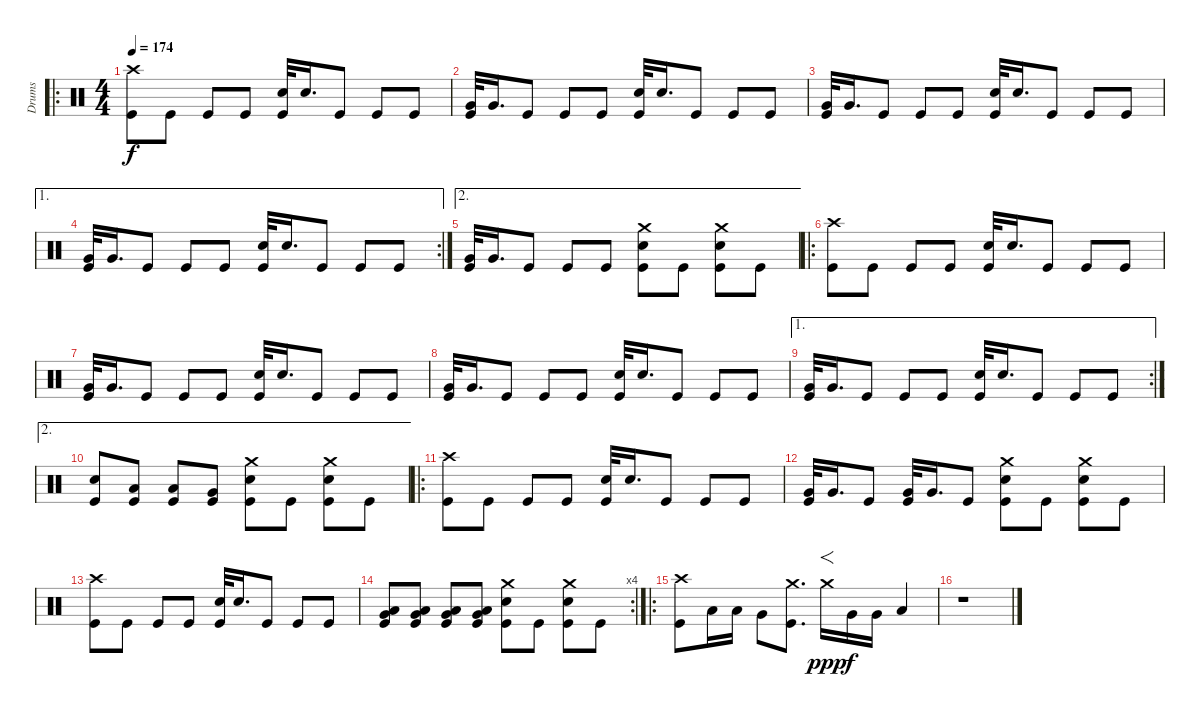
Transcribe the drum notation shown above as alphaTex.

\track ("Drums" "Drums") {instrument percussion}
\staff {score}
\articulation defaults
\ro
\ts (4 4)
\tempo 174
\tempo 164
\tempo 174
\clef neutral
\ks c
("Crash high (hit)" "Kick (hit)").8{dy f} "Kick (hit)".8 "Kick (hit)".8 "Kick (hit)".8 ("Electric Snare (hit)" "Kick (hit)").32 "Electric Snare (hit)".16{d} "Kick (hit)".8 "Kick (hit)".8 "Kick (hit)".8 |
("Very Low Tom (hit)" "Kick (hit)").32 "Very Low Tom (hit)".16{d} "Kick (hit)".8 "Kick (hit)".8 "Kick (hit)".8 ("Electric Snare (hit)" "Kick (hit)").32 "Electric Snare (hit)".16{d} "Kick (hit)".8 "Kick (hit)".8 "Kick (hit)".8 |
("Very Low Tom (hit)" "Kick (hit)").32 "Very Low Tom (hit)".16{d} "Kick (hit)".8 "Kick (hit)".8 "Kick (hit)".8 ("Electric Snare (hit)" "Kick (hit)").32 "Electric Snare (hit)".16{d} "Kick (hit)".8 "Kick (hit)".8 "Kick (hit)".8 |
\ae 1
\rc 2
("Very Low Tom (hit)" "Kick (hit)").32 "Very Low Tom (hit)".16{d} "Kick (hit)".8 "Kick (hit)".8 "Kick (hit)".8 ("Electric Snare (hit)" "Kick (hit)").32 "Electric Snare (hit)".16{d} "Kick (hit)".8 "Kick (hit)".8 "Kick (hit)".8 |
\ae 2
("Very Low Tom (hit)" "Kick (hit)").32 "Very Low Tom (hit)".16{d} "Kick (hit)".8 "Kick (hit)".8 "Kick (hit)".8 ("Crash medium (hit)" "Electric Snare (hit)" "Kick (hit)").8 "Kick (hit)".8 ("Crash medium (hit)" "Electric Snare (hit)" "Kick (hit)").8 "Kick (hit)".8 |
\ro
("Crash high (hit)" "Kick (hit)").8 "Kick (hit)".8 "Kick (hit)".8 "Kick (hit)".8 ("Electric Snare (hit)" "Kick (hit)").32 "Electric Snare (hit)".16{d} "Kick (hit)".8 "Kick (hit)".8 "Kick (hit)".8 |
("Very Low Tom (hit)" "Kick (hit)").32 "Very Low Tom (hit)".16{d} "Kick (hit)".8 "Kick (hit)".8 "Kick (hit)".8 ("Electric Snare (hit)" "Kick (hit)").32 "Electric Snare (hit)".16{d} "Kick (hit)".8 "Kick (hit)".8 "Kick (hit)".8 |
("Very Low Tom (hit)" "Kick (hit)").32 "Very Low Tom (hit)".16{d} "Kick (hit)".8 "Kick (hit)".8 "Kick (hit)".8 ("Electric Snare (hit)" "Kick (hit)").32 "Electric Snare (hit)".16{d} "Kick (hit)".8 "Kick (hit)".8 "Kick (hit)".8 |
\ae 1
\rc 2
("Very Low Tom (hit)" "Kick (hit)").32 "Very Low Tom (hit)".16{d} "Kick (hit)".8 "Kick (hit)".8 "Kick (hit)".8 ("Electric Snare (hit)" "Kick (hit)").32 "Electric Snare (hit)".16{d} "Kick (hit)".8 "Kick (hit)".8 "Kick (hit)".8 |
\ae 2
("Electric Snare (hit)" "Kick (hit)").8 ("Low Tom (hit)" "Kick (hit)").8 ("Low Tom (hit)" "Kick (hit)").8 ("Very Low Tom (hit)" "Kick (hit)").8 ("Crash medium (hit)" "Electric Snare (hit)" "Kick (hit)").8 "Kick (hit)".8 ("Crash medium (hit)" "Electric Snare (hit)" "Kick (hit)").8 "Kick (hit)".8 |
\ro
("Crash high (hit)" "Kick (hit)").8 "Kick (hit)".8 "Kick (hit)".8 "Kick (hit)".8 ("Electric Snare (hit)" "Kick (hit)").32 "Electric Snare (hit)".16{d} "Kick (hit)".8 "Kick (hit)".8 "Kick (hit)".8 |
("Very Low Tom (hit)" "Kick (hit)").32 "Very Low Tom (hit)".16{d} "Kick (hit)".8 ("Very Low Tom (hit)" "Kick (hit)").32 "Very Low Tom (hit)".16{d} "Kick (hit)".8 ("Crash medium (hit)" "Electric Snare (hit)" "Kick (hit)").8 "Kick (hit)".8 ("Crash medium (hit)" "Electric Snare (hit)" "Kick (hit)").8 "Kick (hit)".8 |
("Crash high (hit)" "Kick (hit)").8 "Kick (hit)".8 "Kick (hit)".8 "Kick (hit)".8 ("Electric Snare (hit)" "Kick (hit)").32 "Electric Snare (hit)".16{d} "Kick (hit)".8 "Kick (hit)".8 "Kick (hit)".8 |
\rc 4
("Low Floor Tom (hit)" "Very Low Tom (hit)" "Kick (hit)").8 ("Low Floor Tom (hit)" "Very Low Tom (hit)" "Kick (hit)").8 ("Low Floor Tom (hit)" "Very Low Tom (hit)" "Kick (hit)").8 ("Low Floor Tom (hit)" "Very Low Tom (hit)" "Kick (hit)").8 ("Crash medium (hit)" "Electric Snare (hit)" "Kick (hit)").8 "Kick (hit)".8 ("Crash medium (hit)" "Electric Snare (hit)" "Kick (hit)").8 "Kick (hit)".8 |
\ro
("Crash high (hit)" "Kick (hit)").8 "Low Tom (hit)".16 "Low Tom (hit)".16 "Very Low Tom (hit)".8 ("Crash medium (hit)" "Kick (hit)").8{d} "Crash medium (hit)".16{f dy ppp} "Very Low Tom (hit)".16{dy f} "Very Low Tom (hit)".16 "Low Floor Tom (hit)".4 |
r.1
